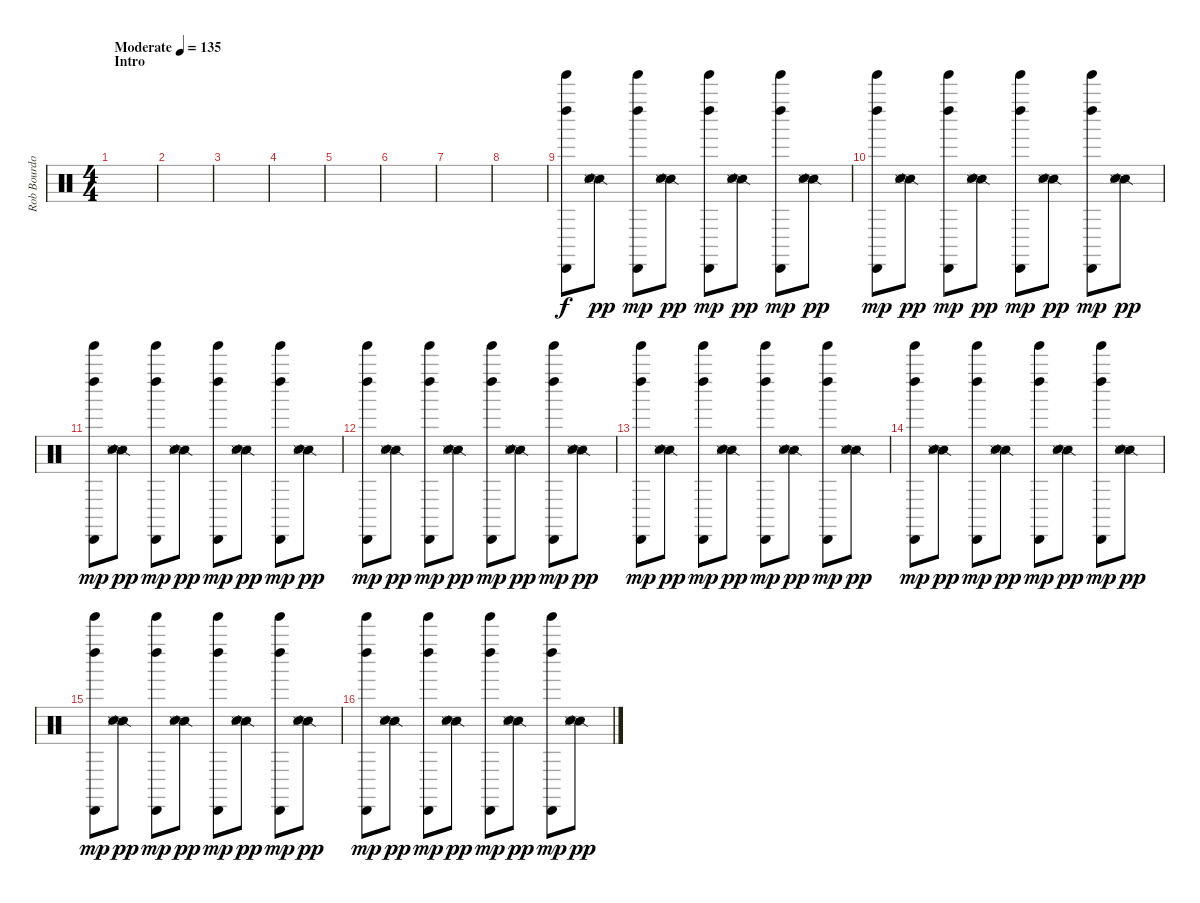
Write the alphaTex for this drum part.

\track ("Rob Bourdon - Beats & Drums" "Rob Bourdo") {instrument percussion}
\staff {score}
\articulation defaults
\ts (4 4)
\section ("" "Intro")
\tempo (135 "Moderate")
\clef neutral
\ks c
|
|
|
|
|
|
|
|
("Tinkle Bell (hit)" "Cabasa (hit)" "Left Maraca (hit)").8 ("Snare (side stick) 2" "Electric Snare (hit)" "Snare (side stick) 3").8{dy pp} ("Tinkle Bell (hit)" "Cabasa (hit)" "Left Maraca (hit)").8{dy mp} ("Snare (side stick) 2" "Electric Snare (hit)" "Snare (side stick) 3").8{dy pp} ("Tinkle Bell (hit)" "Cabasa (hit)" "Left Maraca (hit)").8{dy mp} ("Snare (side stick) 2" "Electric Snare (hit)" "Snare (side stick) 3").8{dy pp} ("Tinkle Bell (hit)" "Cabasa (hit)" "Left Maraca (hit)").8{dy mp} ("Snare (side stick) 2" "Electric Snare (hit)" "Snare (side stick) 3").8{dy pp} |
("Tinkle Bell (hit)" "Cabasa (hit)" "Left Maraca (hit)").8{dy mp} ("Snare (side stick) 2" "Electric Snare (hit)" "Snare (side stick) 3").8{dy pp} ("Tinkle Bell (hit)" "Cabasa (hit)" "Left Maraca (hit)").8{dy mp} ("Snare (side stick) 2" "Electric Snare (hit)" "Snare (side stick) 3").8{dy pp} ("Tinkle Bell (hit)" "Cabasa (hit)" "Left Maraca (hit)").8{dy mp} ("Snare (side stick) 2" "Electric Snare (hit)" "Snare (side stick) 3").8{dy pp} ("Tinkle Bell (hit)" "Cabasa (hit)" "Left Maraca (hit)").8{dy mp} ("Snare (side stick) 2" "Electric Snare (hit)" "Snare (side stick) 3").8{dy pp} |
("Tinkle Bell (hit)" "Cabasa (hit)" "Left Maraca (hit)").8{dy mp} ("Snare (side stick) 2" "Electric Snare (hit)" "Snare (side stick) 3").8{dy pp} ("Tinkle Bell (hit)" "Cabasa (hit)" "Left Maraca (hit)").8{dy mp} ("Snare (side stick) 2" "Electric Snare (hit)" "Snare (side stick) 3").8{dy pp} ("Tinkle Bell (hit)" "Cabasa (hit)" "Left Maraca (hit)").8{dy mp} ("Snare (side stick) 2" "Electric Snare (hit)" "Snare (side stick) 3").8{dy pp} ("Tinkle Bell (hit)" "Cabasa (hit)" "Left Maraca (hit)").8{dy mp} ("Snare (side stick) 2" "Electric Snare (hit)" "Snare (side stick) 3").8{dy pp} |
("Tinkle Bell (hit)" "Cabasa (hit)" "Left Maraca (hit)").8{dy mp} ("Snare (side stick) 2" "Electric Snare (hit)" "Snare (side stick) 3").8{dy pp} ("Tinkle Bell (hit)" "Cabasa (hit)" "Left Maraca (hit)").8{dy mp} ("Snare (side stick) 2" "Electric Snare (hit)" "Snare (side stick) 3").8{dy pp} ("Tinkle Bell (hit)" "Cabasa (hit)" "Left Maraca (hit)").8{dy mp} ("Snare (side stick) 2" "Electric Snare (hit)" "Snare (side stick) 3").8{dy pp} ("Tinkle Bell (hit)" "Cabasa (hit)" "Left Maraca (hit)").8{dy mp} ("Snare (side stick) 2" "Electric Snare (hit)" "Snare (side stick) 3").8{dy pp} |
("Tinkle Bell (hit)" "Cabasa (hit)" "Left Maraca (hit)").8{dy mp} ("Snare (side stick) 2" "Electric Snare (hit)" "Snare (side stick) 3").8{dy pp} ("Tinkle Bell (hit)" "Cabasa (hit)" "Left Maraca (hit)").8{dy mp} ("Snare (side stick) 2" "Electric Snare (hit)" "Snare (side stick) 3").8{dy pp} ("Tinkle Bell (hit)" "Cabasa (hit)" "Left Maraca (hit)").8{dy mp} ("Snare (side stick) 2" "Electric Snare (hit)" "Snare (side stick) 3").8{dy pp} ("Tinkle Bell (hit)" "Cabasa (hit)" "Left Maraca (hit)").8{dy mp} ("Snare (side stick) 2" "Electric Snare (hit)" "Snare (side stick) 3").8{dy pp} |
("Tinkle Bell (hit)" "Cabasa (hit)" "Left Maraca (hit)").8{dy mp} ("Snare (side stick) 2" "Electric Snare (hit)" "Snare (side stick) 3").8{dy pp} ("Tinkle Bell (hit)" "Cabasa (hit)" "Left Maraca (hit)").8{dy mp} ("Snare (side stick) 2" "Electric Snare (hit)" "Snare (side stick) 3").8{dy pp} ("Tinkle Bell (hit)" "Cabasa (hit)" "Left Maraca (hit)").8{dy mp} ("Snare (side stick) 2" "Electric Snare (hit)" "Snare (side stick) 3").8{dy pp} ("Tinkle Bell (hit)" "Cabasa (hit)" "Left Maraca (hit)").8{dy mp} ("Snare (side stick) 2" "Electric Snare (hit)" "Snare (side stick) 3").8{dy pp} |
("Tinkle Bell (hit)" "Cabasa (hit)" "Left Maraca (hit)").8{dy mp} ("Snare (side stick) 2" "Electric Snare (hit)" "Snare (side stick) 3").8{dy pp} ("Tinkle Bell (hit)" "Cabasa (hit)" "Left Maraca (hit)").8{dy mp} ("Snare (side stick) 2" "Electric Snare (hit)" "Snare (side stick) 3").8{dy pp} ("Tinkle Bell (hit)" "Cabasa (hit)" "Left Maraca (hit)").8{dy mp} ("Snare (side stick) 2" "Electric Snare (hit)" "Snare (side stick) 3").8{dy pp} ("Tinkle Bell (hit)" "Cabasa (hit)" "Left Maraca (hit)").8{dy mp} ("Snare (side stick) 2" "Electric Snare (hit)" "Snare (side stick) 3").8{dy pp} |
("Tinkle Bell (hit)" "Cabasa (hit)" "Left Maraca (hit)").8{dy mp} ("Snare (side stick) 2" "Electric Snare (hit)" "Snare (side stick) 3").8{dy pp} ("Tinkle Bell (hit)" "Cabasa (hit)" "Left Maraca (hit)").8{dy mp} ("Snare (side stick) 2" "Electric Snare (hit)" "Snare (side stick) 3").8{dy pp} ("Tinkle Bell (hit)" "Cabasa (hit)" "Left Maraca (hit)").8{dy mp} ("Snare (side stick) 2" "Electric Snare (hit)" "Snare (side stick) 3").8{dy pp} ("Tinkle Bell (hit)" "Cabasa (hit)" "Left Maraca (hit)").8{dy mp} ("Snare (side stick) 2" "Electric Snare (hit)" "Snare (side stick) 3").8{dy pp}
